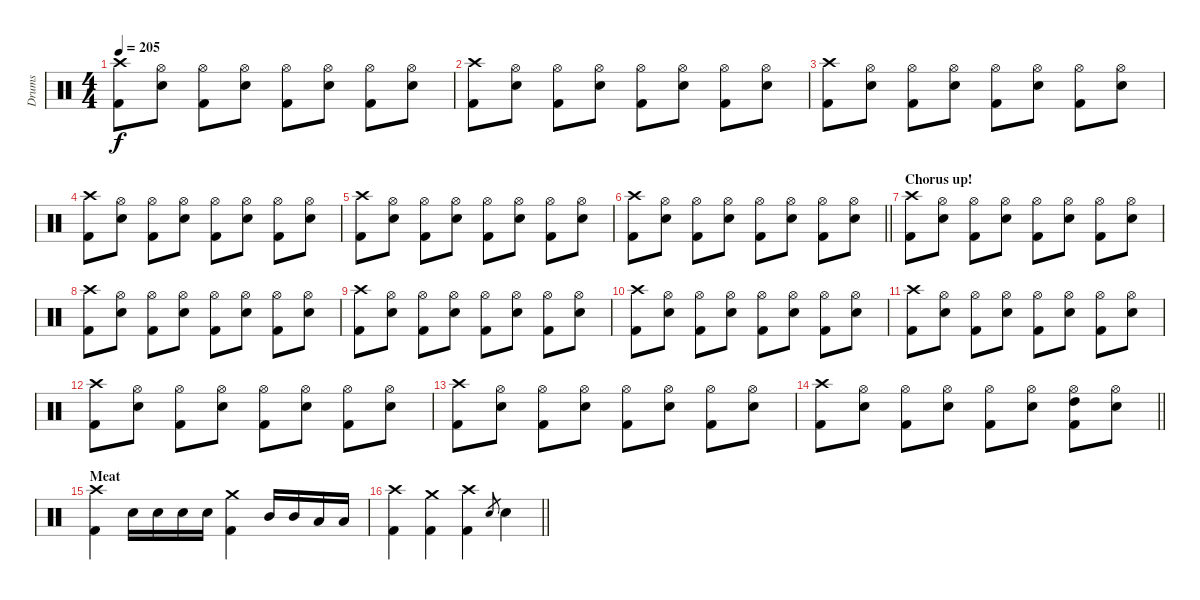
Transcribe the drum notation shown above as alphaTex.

\track ("Drums" "Drums") {instrument percussion}
\staff {score}
\articulation defaults
\ts (4 4)
\tempo 205
\clef neutral
\ks c
("Crash high (hit)" "Kick (hit) 2").8{dy f} ("Hi-Hat (open)" "Snare (hit) 2").8 ("Hi-Hat (open)" "Kick (hit) 2").8 ("Hi-Hat (open)" "Snare (hit) 2").8 ("Hi-Hat (open)" "Kick (hit) 2").8 ("Hi-Hat (open)" "Snare (hit) 2").8 ("Hi-Hat (open)" "Kick (hit) 2").8 ("Hi-Hat (open)" "Snare (hit) 2").8 |
("Crash high (hit)" "Kick (hit) 2").8 ("Hi-Hat (open)" "Snare (hit) 2").8 ("Hi-Hat (open)" "Kick (hit) 2").8 ("Hi-Hat (open)" "Snare (hit) 2").8 ("Hi-Hat (open)" "Kick (hit) 2").8 ("Hi-Hat (open)" "Snare (hit) 2").8 ("Hi-Hat (open)" "Kick (hit) 2").8 ("Hi-Hat (open)" "Snare (hit) 2").8 |
("Crash high (hit)" "Kick (hit) 2").8 ("Hi-Hat (open)" "Snare (hit) 2").8 ("Hi-Hat (open)" "Kick (hit) 2").8 ("Hi-Hat (open)" "Snare (hit) 2").8 ("Hi-Hat (open)" "Kick (hit) 2").8 ("Hi-Hat (open)" "Snare (hit) 2").8 ("Hi-Hat (open)" "Kick (hit) 2").8 ("Hi-Hat (open)" "Snare (hit) 2").8 |
("Crash high (hit)" "Kick (hit) 2").8 ("Hi-Hat (open)" "Snare (hit) 2").8 ("Hi-Hat (open)" "Kick (hit) 2").8 ("Hi-Hat (open)" "Snare (hit) 2").8 ("Hi-Hat (open)" "Kick (hit) 2").8 ("Hi-Hat (open)" "Snare (hit) 2").8 ("Hi-Hat (open)" "Kick (hit) 2").8 ("Hi-Hat (open)" "Snare (hit) 2").8 |
("Crash high (hit)" "Kick (hit) 2").8 ("Hi-Hat (open)" "Snare (hit) 2").8 ("Hi-Hat (open)" "Kick (hit) 2").8 ("Hi-Hat (open)" "Snare (hit) 2").8 ("Hi-Hat (open)" "Kick (hit) 2").8 ("Hi-Hat (open)" "Snare (hit) 2").8 ("Hi-Hat (open)" "Kick (hit) 2").8 ("Hi-Hat (open)" "Snare (hit) 2").8 |
\barLineRight lightlight
("Crash high (hit)" "Kick (hit) 2").8 ("Hi-Hat (open)" "Snare (hit) 2").8 ("Hi-Hat (open)" "Kick (hit) 2").8 ("Hi-Hat (open)" "Snare (hit) 2").8 ("Hi-Hat (open)" "Kick (hit) 2").8 ("Hi-Hat (open)" "Snare (hit) 2").8 ("Hi-Hat (open)" "Kick (hit) 2").8 ("Hi-Hat (open)" "Snare (hit) 2").8 |
\section ("" "Chorus up!")
("Crash high (hit)" "Kick (hit) 2").8 ("Hi-Hat (open)" "Snare (hit) 2").8 ("Hi-Hat (open)" "Kick (hit) 2").8 ("Hi-Hat (open)" "Snare (hit) 2").8 ("Hi-Hat (open)" "Kick (hit) 2").8 ("Hi-Hat (open)" "Snare (hit) 2").8 ("Hi-Hat (open)" "Kick (hit) 2").8 ("Hi-Hat (open)" "Snare (hit) 2").8 |
("Crash high (hit)" "Kick (hit) 2").8 ("Hi-Hat (open)" "Snare (hit) 2").8 ("Hi-Hat (open)" "Kick (hit) 2").8 ("Hi-Hat (open)" "Snare (hit) 2").8 ("Hi-Hat (open)" "Kick (hit) 2").8 ("Hi-Hat (open)" "Snare (hit) 2").8 ("Hi-Hat (open)" "Kick (hit) 2").8 ("Hi-Hat (open)" "Snare (hit) 2").8 |
("Crash high (hit)" "Kick (hit) 2").8 ("Hi-Hat (open)" "Snare (hit) 2").8 ("Hi-Hat (open)" "Kick (hit) 2").8 ("Hi-Hat (open)" "Snare (hit) 2").8 ("Hi-Hat (open)" "Kick (hit) 2").8 ("Hi-Hat (open)" "Snare (hit) 2").8 ("Hi-Hat (open)" "Kick (hit) 2").8 ("Hi-Hat (open)" "Snare (hit) 2").8 |
("Crash high (hit)" "Kick (hit) 2").8 ("Hi-Hat (open)" "Snare (hit) 2").8 ("Hi-Hat (open)" "Kick (hit) 2").8 ("Hi-Hat (open)" "Snare (hit) 2").8 ("Hi-Hat (open)" "Kick (hit) 2").8 ("Hi-Hat (open)" "Snare (hit) 2").8 ("Hi-Hat (open)" "Kick (hit) 2").8 ("Hi-Hat (open)" "Snare (hit) 2").8 |
("Crash high (hit)" "Kick (hit) 2").8 ("Hi-Hat (open)" "Snare (hit) 2").8 ("Hi-Hat (open)" "Kick (hit) 2").8 ("Hi-Hat (open)" "Snare (hit) 2").8 ("Hi-Hat (open)" "Kick (hit) 2").8 ("Hi-Hat (open)" "Snare (hit) 2").8 ("Hi-Hat (open)" "Kick (hit) 2").8 ("Hi-Hat (open)" "Snare (hit) 2").8 |
("Crash high (hit)" "Kick (hit) 2").8 ("Hi-Hat (open)" "Snare (hit) 2").8 ("Hi-Hat (open)" "Kick (hit) 2").8 ("Hi-Hat (open)" "Snare (hit) 2").8 ("Hi-Hat (open)" "Kick (hit) 2").8 ("Hi-Hat (open)" "Snare (hit) 2").8 ("Hi-Hat (open)" "Kick (hit) 2").8 ("Hi-Hat (open)" "Snare (hit) 2").8 |
("Crash high (hit)" "Kick (hit) 2").8 ("Hi-Hat (open)" "Snare (hit) 2").8 ("Hi-Hat (open)" "Kick (hit) 2").8 ("Hi-Hat (open)" "Snare (hit) 2").8 ("Hi-Hat (open)" "Kick (hit) 2").8 ("Hi-Hat (open)" "Snare (hit) 2").8 ("Hi-Hat (open)" "Kick (hit) 2").8 ("Hi-Hat (open)" "Snare (hit) 2").8 |
\barLineRight lightlight
("Crash high (hit)" "Kick (hit) 2").8 ("Hi-Hat (open)" "Snare (hit) 2").8 ("Hi-Hat (open)" "Kick (hit) 2").8 ("Hi-Hat (open)" "Snare (hit) 2").8 ("Hi-Hat (open)" "Kick (hit) 2").8 ("Hi-Hat (open)" "Snare (hit) 2").8 ("Hi-Hat (open)" "High Tom (hit)" "Kick (hit) 2").8 ("Hi-Hat (open)" "Snare (hit) 2").8 |
\section ("" "Meat")
("Crash high (hit)" "Kick (hit) 2").4 "Snare (hit) 2".16 "Snare (hit) 2".16 "Snare (hit) 2".16 "Snare (hit) 2".16 ("Crash medium (hit)" "Kick (hit) 2").4 "Mid Tom (hit)".16 "Mid Tom (hit)".16 "Low Tom (hit)".16 "Low Tom (hit)".16 |
\barLineRight lightlight
("Crash high (hit)" "Kick (hit) 2").4 ("Crash medium (hit)" "Kick (hit) 2").4 ("Crash high (hit)" "Kick (hit) 2").4 "Snare (hit) 2".8{gr} "Snare (hit) 2".4
